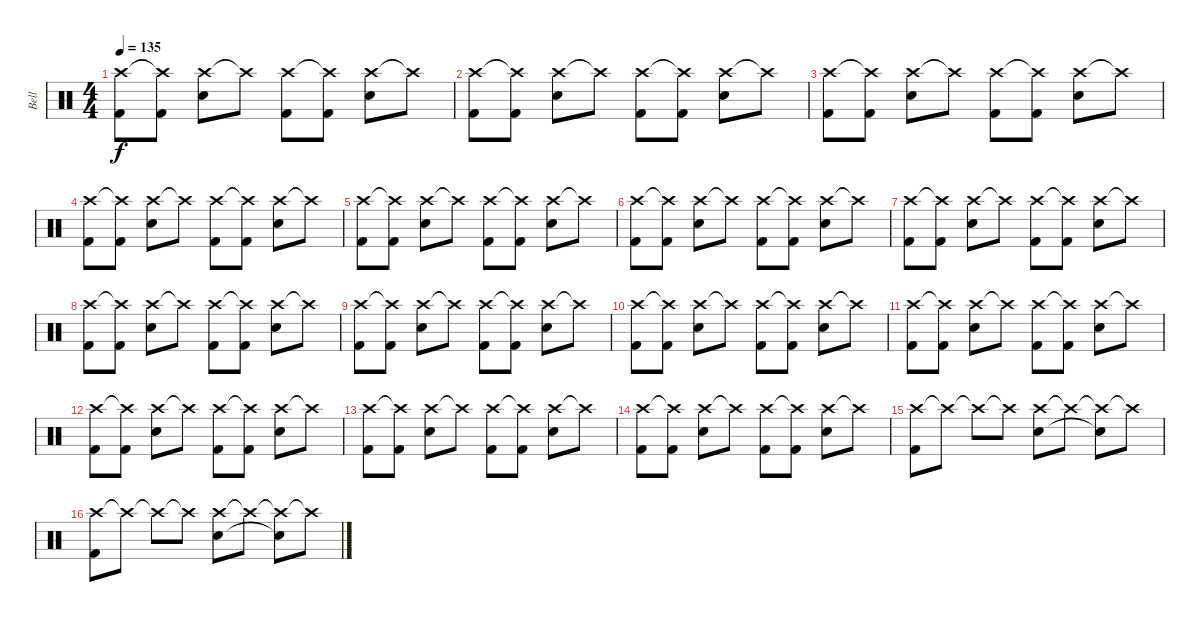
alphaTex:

\track ("Bell" "Bell") {instrument percussion}
\staff {score}
\articulation defaults
\ts (4 4)
\tempo 135
\clef neutral
\ks c
("Crash high (hit)" "Kick (hit) 2").8{dy f} ("Crash high (hit)"{t} "Kick (hit) 2").8 ("Crash high (hit)" "Snare (hit) 2").8 "Crash high (hit)"{t}.8 ("Crash high (hit)" "Kick (hit) 2").8 ("Crash high (hit)"{t} "Kick (hit) 2").8 ("Crash high (hit)" "Snare (hit) 2").8 "Crash high (hit)"{t}.8 |
("Crash high (hit)" "Kick (hit) 2").8 ("Crash high (hit)"{t} "Kick (hit) 2").8 ("Crash high (hit)" "Snare (hit) 2").8 "Crash high (hit)"{t}.8 ("Crash high (hit)" "Kick (hit) 2").8 ("Crash high (hit)"{t} "Kick (hit) 2").8 ("Crash high (hit)" "Snare (hit) 2").8 "Crash high (hit)"{t}.8 |
("Crash high (hit)" "Kick (hit) 2").8 ("Crash high (hit)"{t} "Kick (hit) 2").8 ("Crash high (hit)" "Snare (hit) 2").8 "Crash high (hit)"{t}.8 ("Crash high (hit)" "Kick (hit) 2").8 ("Crash high (hit)"{t} "Kick (hit) 2").8 ("Crash high (hit)" "Snare (hit) 2").8 "Crash high (hit)"{t}.8 |
("Crash high (hit)" "Kick (hit) 2").8 ("Crash high (hit)"{t} "Kick (hit) 2").8 ("Crash high (hit)" "Snare (hit) 2").8 "Crash high (hit)"{t}.8 ("Crash high (hit)" "Kick (hit) 2").8 ("Crash high (hit)"{t} "Kick (hit) 2").8 ("Crash high (hit)" "Snare (hit) 2").8 "Crash high (hit)"{t}.8 |
("Crash high (hit)" "Kick (hit) 2").8 ("Crash high (hit)"{t} "Kick (hit) 2").8 ("Crash high (hit)" "Snare (hit) 2").8 "Crash high (hit)"{t}.8 ("Crash high (hit)" "Kick (hit) 2").8 ("Crash high (hit)"{t} "Kick (hit) 2").8 ("Crash high (hit)" "Snare (hit) 2").8 "Crash high (hit)"{t}.8 |
("Crash high (hit)" "Kick (hit) 2").8 ("Crash high (hit)"{t} "Kick (hit) 2").8 ("Crash high (hit)" "Snare (hit) 2").8 "Crash high (hit)"{t}.8 ("Crash high (hit)" "Kick (hit) 2").8 ("Crash high (hit)"{t} "Kick (hit) 2").8 ("Crash high (hit)" "Snare (hit) 2").8 "Crash high (hit)"{t}.8 |
("Crash high (hit)" "Kick (hit) 2").8 ("Crash high (hit)"{t} "Kick (hit) 2").8 ("Crash high (hit)" "Snare (hit) 2").8 "Crash high (hit)"{t}.8 ("Crash high (hit)" "Kick (hit) 2").8 ("Crash high (hit)"{t} "Kick (hit) 2").8 ("Crash high (hit)" "Snare (hit) 2").8 "Crash high (hit)"{t}.8 |
("Crash high (hit)" "Kick (hit) 2").8 ("Crash high (hit)"{t} "Kick (hit) 2").8 ("Crash high (hit)" "Snare (hit) 2").8 "Crash high (hit)"{t}.8 ("Crash high (hit)" "Kick (hit) 2").8 ("Crash high (hit)"{t} "Kick (hit) 2").8 ("Crash high (hit)" "Snare (hit) 2").8 "Crash high (hit)"{t}.8 |
("Crash high (hit)" "Kick (hit) 2").8 ("Crash high (hit)"{t} "Kick (hit) 2").8 ("Crash high (hit)" "Snare (hit) 2").8 "Crash high (hit)"{t}.8 ("Crash high (hit)" "Kick (hit) 2").8 ("Crash high (hit)"{t} "Kick (hit) 2").8 ("Crash high (hit)" "Snare (hit) 2").8 "Crash high (hit)"{t}.8 |
("Crash high (hit)" "Kick (hit) 2").8 ("Crash high (hit)"{t} "Kick (hit) 2").8 ("Crash high (hit)" "Snare (hit) 2").8 "Crash high (hit)"{t}.8 ("Crash high (hit)" "Kick (hit) 2").8 ("Crash high (hit)"{t} "Kick (hit) 2").8 ("Crash high (hit)" "Snare (hit) 2").8 "Crash high (hit)"{t}.8 |
("Crash high (hit)" "Kick (hit) 2").8 ("Crash high (hit)"{t} "Kick (hit) 2").8 ("Crash high (hit)" "Snare (hit) 2").8 "Crash high (hit)"{t}.8 ("Crash high (hit)" "Kick (hit) 2").8 ("Crash high (hit)"{t} "Kick (hit) 2").8 ("Crash high (hit)" "Snare (hit) 2").8 "Crash high (hit)"{t}.8 |
("Crash high (hit)" "Kick (hit) 2").8 ("Crash high (hit)"{t} "Kick (hit) 2").8 ("Crash high (hit)" "Snare (hit) 2").8 "Crash high (hit)"{t}.8 ("Crash high (hit)" "Kick (hit) 2").8 ("Crash high (hit)"{t} "Kick (hit) 2").8 ("Crash high (hit)" "Snare (hit) 2").8 "Crash high (hit)"{t}.8 |
("Crash high (hit)" "Kick (hit) 2").8 ("Crash high (hit)"{t} "Kick (hit) 2").8 ("Crash high (hit)" "Snare (hit) 2").8 "Crash high (hit)"{t}.8 ("Crash high (hit)" "Kick (hit) 2").8 ("Crash high (hit)"{t} "Kick (hit) 2").8 ("Crash high (hit)" "Snare (hit) 2").8 "Crash high (hit)"{t}.8 |
("Crash high (hit)" "Kick (hit) 2").8 ("Crash high (hit)"{t} "Kick (hit) 2").8 ("Crash high (hit)" "Snare (hit) 2").8 "Crash high (hit)"{t}.8 ("Crash high (hit)" "Kick (hit) 2").8 ("Crash high (hit)"{t} "Kick (hit) 2").8 ("Crash high (hit)" "Snare (hit) 2").8 "Crash high (hit)"{t}.8 |
("Crash high (hit)" "Kick (hit) 2").8 "Crash high (hit)"{t}.8 "Crash high (hit)"{t}.8 "Crash high (hit)"{t}.8 ("Crash high (hit)" "Snare (hit) 2").8 "Crash high (hit)"{t}.8 ("Crash high (hit)"{t} "Snare (hit) 2"{t}).8 "Crash high (hit)"{t}.8 |
("Crash high (hit)" "Kick (hit) 2").8 "Crash high (hit)"{t}.8 "Crash high (hit)"{t}.8 "Crash high (hit)"{t}.8 ("Crash high (hit)" "Snare (hit) 2").8 "Crash high (hit)"{t}.8 ("Crash high (hit)"{t} "Snare (hit) 2"{t}).8 "Crash high (hit)"{t}.8
